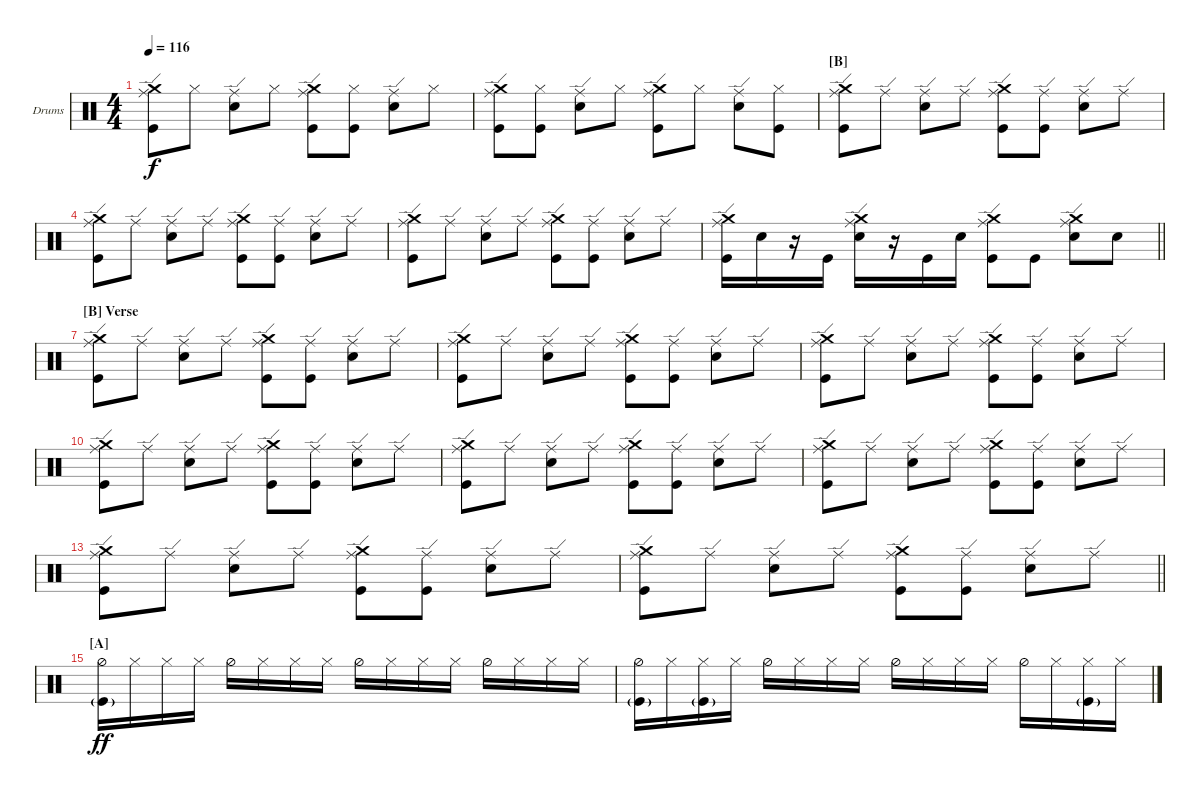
\bracketExtendMode nobrackets
\firstSystemTrackNameOrientation horizontal
\otherSystemsTrackNameOrientation horizontal
\defaultBarNumberDisplay FirstOfSystem
\track ("Drumkit" "Drums") {instrument percussion}
\staff {score}
\articulation defaults
\ts (4 4)
\tempo 116
\clef neutral
\scale
0.476839
\ks c
("Kick (hit)" "Crash medium (hit)" "Ride (edge)").8{dy f} "Hi-Hat (closed)".8 ("Snare (hit) 2" "Ride (edge)").8 "Hi-Hat (closed)".8 ("Kick (hit)" "Crash medium (hit)" "Ride (edge)").8 ("Kick (hit)" "Hi-Hat (closed)").8 ("Snare (hit) 2" "Ride (edge)").8 "Hi-Hat (closed)".8 |
\scale
0.523161 ("Kick (hit)" "Ride (edge)" "Crash medium (hit)").8 ("Hi-Hat (closed)" "Kick (hit)").8 ("Snare (hit) 2" "Ride (edge)").8 "Hi-Hat (closed)".8 ("Kick (hit)" "Ride (edge)" "Crash medium (hit)").8 "Hi-Hat (closed)".8 ("Snare (hit) 2" "Ride (edge)").8 ("Hi-Hat (closed)" "Kick (hit)").8 |
\section ("B" "")
\scale
0.506073 ("Kick (hit)" "Ride (edge)" "Crash medium (hit)").8 "Ride (edge)".8 ("Snare (hit) 2" "Ride (edge)").8 "Ride (edge)".8 ("Kick (hit)" "Ride (edge)" "Crash medium (hit)").8 ("Kick (hit)" "Ride (edge)").8 ("Snare (hit) 2" "Ride (edge)").8 "Ride (edge)".8 |
\scale
0.493927 ("Kick (hit)" "Ride (edge)" "Crash medium (hit)").8 "Ride (edge)".8 ("Snare (hit) 2" "Ride (edge)").8 "Ride (edge)".8 ("Kick (hit)" "Ride (edge)" "Crash medium (hit)").8 ("Kick (hit)" "Ride (edge)").8 ("Snare (hit) 2" "Ride (edge)").8 "Ride (edge)".8 |
\scale
0.499076 ("Kick (hit)" "Ride (edge)" "Crash medium (hit)").8 "Ride (edge)".8 ("Snare (hit) 2" "Ride (edge)").8 "Ride (edge)".8 ("Kick (hit)" "Ride (edge)" "Crash medium (hit)").8 ("Kick (hit)" "Ride (edge)").8 ("Snare (hit) 2" "Ride (edge)").8 "Ride (edge)".8 |
\scale
0.500924
\barLineRight lightlight
("Kick (hit)" "Ride (edge)" "Crash medium (hit)").16 "Snare (hit) 2".16 r.16 "Kick (hit)".16 ("Snare (hit) 2" "Ride (edge)" "Crash medium (hit)").16 r.16 "Kick (hit)".16 "Snare (hit) 2".16 ("Kick (hit)" "Ride (edge)" "Crash medium (hit)").8 "Kick (hit)".8 ("Snare (hit) 2" "Ride (edge)" "Crash medium (hit)").8 "Snare (hit) 2".8 |
\section ("B" "Verse")
\scale
0.5 ("Kick (hit)" "Ride (edge)" "Crash medium (hit)").8 "Ride (edge)".8 ("Snare (hit) 2" "Ride (edge)").8 "Ride (edge)".8 ("Kick (hit)" "Ride (edge)" "Crash medium (hit)").8 ("Kick (hit)" "Ride (edge)").8 ("Snare (hit) 2" "Ride (edge)").8 "Ride (edge)".8 |
\scale
0.5 ("Kick (hit)" "Ride (edge)" "Crash medium (hit)").8 "Ride (edge)".8 ("Snare (hit) 2" "Ride (edge)").8 "Ride (edge)".8 ("Kick (hit)" "Ride (edge)" "Crash medium (hit)").8 ("Kick (hit)" "Ride (edge)").8 ("Snare (hit) 2" "Ride (edge)").8 "Ride (edge)".8 |
\scale
0.474708 ("Kick (hit)" "Ride (edge)" "Crash medium (hit)").8 "Ride (edge)".8 ("Snare (hit) 2" "Ride (edge)").8 "Ride (edge)".8 ("Kick (hit)" "Ride (edge)" "Crash medium (hit)").8 ("Kick (hit)" "Ride (edge)").8 ("Snare (hit) 2" "Ride (edge)").8 "Ride (edge)".8 |
\scale
0.525292 ("Kick (hit)" "Ride (edge)" "Crash medium (hit)").8 "Ride (edge)".8 ("Snare (hit) 2" "Ride (edge)").8 "Ride (edge)".8 ("Kick (hit)" "Ride (edge)" "Crash medium (hit)").8 ("Kick (hit)" "Ride (edge)").8 ("Snare (hit) 2" "Ride (edge)").8 "Ride (edge)".8 |
\scale
0.525292 ("Kick (hit)" "Ride (edge)" "Crash medium (hit)").8 "Ride (edge)".8 ("Snare (hit) 2" "Ride (edge)").8 "Ride (edge)".8 ("Kick (hit)" "Ride (edge)" "Crash medium (hit)").8 ("Kick (hit)" "Ride (edge)").8 ("Snare (hit) 2" "Ride (edge)").8 "Ride (edge)".8 |
\scale
0.474708 ("Kick (hit)" "Ride (edge)" "Crash medium (hit)").8 "Ride (edge)".8 ("Snare (hit) 2" "Ride (edge)").8 "Ride (edge)".8 ("Kick (hit)" "Ride (edge)" "Crash medium (hit)").8 ("Kick (hit)" "Ride (edge)").8 ("Snare (hit) 2" "Ride (edge)").8 "Ride (edge)".8 |
\scale
0.5 ("Kick (hit)" "Ride (edge)" "Crash medium (hit)").8 "Ride (edge)".8 ("Snare (hit) 2" "Ride (edge)").8 "Ride (edge)".8 ("Kick (hit)" "Ride (edge)" "Crash medium (hit)").8 ("Kick (hit)" "Ride (edge)").8 ("Snare (hit) 2" "Ride (edge)").8 "Ride (edge)".8 |
\scale
0.5
\barLineRight lightlight
("Kick (hit)" "Ride (edge)" "Crash medium (hit)").8 "Ride (edge)".8 ("Snare (hit) 2" "Ride (edge)").8 "Ride (edge)".8 ("Kick (hit)" "Ride (edge)" "Crash medium (hit)").8 ("Kick (hit)" "Ride (edge)").8 ("Snare (hit) 2" "Ride (edge)").8 "Ride (edge)".8 |
\section ("A" "")
\scale
0.512275 ("Hi-Hat (half)" "Kick (hit)"{g}).16{dy ff} "Hi-Hat (closed)".16 "Hi-Hat (closed)".16 "Hi-Hat (closed)".16 "Hi-Hat (half)".16 "Hi-Hat (closed)".16 "Hi-Hat (closed)".16 "Hi-Hat (closed)".16 "Hi-Hat (half)".16 "Hi-Hat (closed)".16 "Hi-Hat (closed)".16 "Hi-Hat (closed)".16 "Hi-Hat (half)".16 "Hi-Hat (closed)".16 "Hi-Hat (closed)".16 "Hi-Hat (closed)".16 |
\scale
0.487725 ("Hi-Hat (half)" "Kick (hit)"{g}).16 "Hi-Hat (closed)".16 ("Hi-Hat (closed)" "Kick (hit)"{g}).16 "Hi-Hat (closed)".16 "Hi-Hat (half)".16 "Hi-Hat (closed)".16 "Hi-Hat (closed)".16 "Hi-Hat (closed)".16 "Hi-Hat (half)".16 "Hi-Hat (closed)".16 "Hi-Hat (closed)".16 "Hi-Hat (closed)".16 "Hi-Hat (half)".16 "Hi-Hat (closed)".16 ("Hi-Hat (closed)" "Kick (hit)"{g}).16 "Hi-Hat (closed)".16
